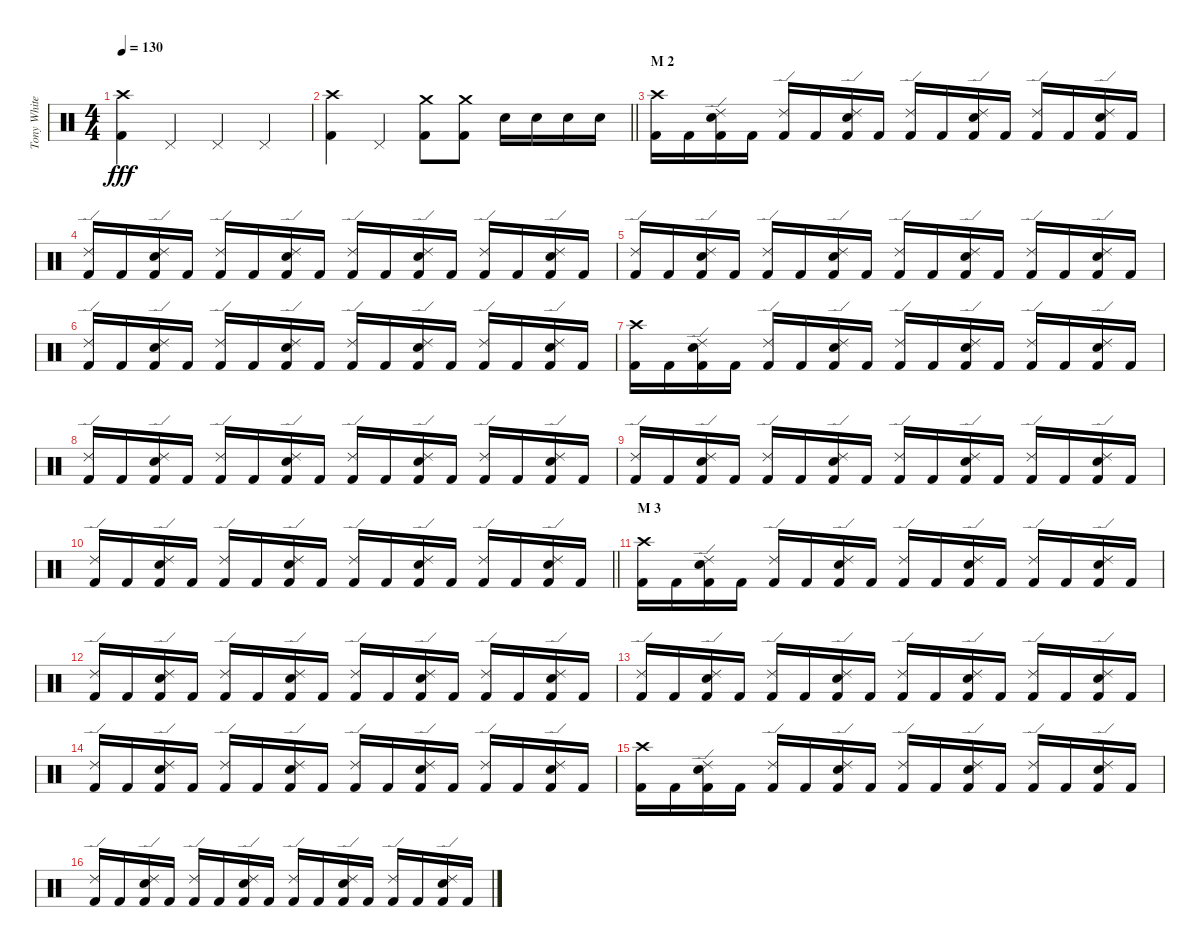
\track ("Tony White" "Tony White") {instrument percussion}
\staff {score}
\articulation defaults
\ts (4 4)
\tempo 130
\clef neutral
\ks c
("Crash high (hit)" "Kick (hit) 2").4{dy fff} "Pedal Hi-Hat (hit)".4 "Pedal Hi-Hat (hit)".4 "Pedal Hi-Hat (hit)".4 |
\barLineRight lightlight
("Crash high (hit)" "Kick (hit) 2").4 "Pedal Hi-Hat (hit)".4 ("Crash medium (hit)" "Kick (hit) 2").8 ("Crash medium (hit)" "Kick (hit) 2").8 "Electric Snare (hit)".16 "Electric Snare (hit)".16 "Electric Snare (hit)".16 "Electric Snare (hit)".16 |
\section ("" "M 2")
("Crash high (hit)" "Kick (hit) 2").16 "Kick (hit) 2".16 ("Ride (edge) 2" "Electric Snare (hit)" "Kick (hit) 2").16 "Kick (hit) 2".16 ("Ride (edge) 2" "Kick (hit) 2").16 "Kick (hit) 2".16 ("Ride (edge) 2" "Electric Snare (hit)" "Kick (hit) 2").16 "Kick (hit) 2".16 ("Ride (edge) 2" "Kick (hit) 2").16 "Kick (hit) 2".16 ("Ride (edge) 2" "Electric Snare (hit)" "Kick (hit) 2").16 "Kick (hit) 2".16 ("Ride (edge) 2" "Kick (hit) 2").16 "Kick (hit) 2".16 ("Ride (edge) 2" "Electric Snare (hit)" "Kick (hit) 2").16 "Kick (hit) 2".16 |
("Ride (edge) 2" "Kick (hit) 2").16 "Kick (hit) 2".16 ("Ride (edge) 2" "Electric Snare (hit)" "Kick (hit) 2").16 "Kick (hit) 2".16 ("Ride (edge) 2" "Kick (hit) 2").16 "Kick (hit) 2".16 ("Ride (edge) 2" "Electric Snare (hit)" "Kick (hit) 2").16 "Kick (hit) 2".16 ("Ride (edge) 2" "Kick (hit) 2").16 "Kick (hit) 2".16 ("Ride (edge) 2" "Electric Snare (hit)" "Kick (hit) 2").16 "Kick (hit) 2".16 ("Ride (edge) 2" "Kick (hit) 2").16 "Kick (hit) 2".16 ("Ride (edge) 2" "Electric Snare (hit)" "Kick (hit) 2").16 "Kick (hit) 2".16 |
("Ride (edge) 2" "Kick (hit) 2").16 "Kick (hit) 2".16 ("Ride (edge) 2" "Electric Snare (hit)" "Kick (hit) 2").16 "Kick (hit) 2".16 ("Ride (edge) 2" "Kick (hit) 2").16 "Kick (hit) 2".16 ("Ride (edge) 2" "Electric Snare (hit)" "Kick (hit) 2").16 "Kick (hit) 2".16 ("Ride (edge) 2" "Kick (hit) 2").16 "Kick (hit) 2".16 ("Ride (edge) 2" "Electric Snare (hit)" "Kick (hit) 2").16 "Kick (hit) 2".16 ("Ride (edge) 2" "Kick (hit) 2").16 "Kick (hit) 2".16 ("Ride (edge) 2" "Electric Snare (hit)" "Kick (hit) 2").16 "Kick (hit) 2".16 |
("Ride (edge) 2" "Kick (hit) 2").16 "Kick (hit) 2".16 ("Ride (edge) 2" "Electric Snare (hit)" "Kick (hit) 2").16 "Kick (hit) 2".16 ("Ride (edge) 2" "Kick (hit) 2").16 "Kick (hit) 2".16 ("Ride (edge) 2" "Electric Snare (hit)" "Kick (hit) 2").16 "Kick (hit) 2".16 ("Ride (edge) 2" "Kick (hit) 2").16 "Kick (hit) 2".16 ("Ride (edge) 2" "Electric Snare (hit)" "Kick (hit) 2").16 "Kick (hit) 2".16 ("Ride (edge) 2" "Kick (hit) 2").16 "Kick (hit) 2".16 ("Ride (edge) 2" "Electric Snare (hit)" "Kick (hit) 2").16 "Kick (hit) 2".16 |
("Crash high (hit)" "Kick (hit) 2").16 "Kick (hit) 2".16 ("Ride (edge) 2" "Electric Snare (hit)" "Kick (hit) 2").16 "Kick (hit) 2".16 ("Ride (edge) 2" "Kick (hit) 2").16 "Kick (hit) 2".16 ("Ride (edge) 2" "Electric Snare (hit)" "Kick (hit) 2").16 "Kick (hit) 2".16 ("Ride (edge) 2" "Kick (hit) 2").16 "Kick (hit) 2".16 ("Ride (edge) 2" "Electric Snare (hit)" "Kick (hit) 2").16 "Kick (hit) 2".16 ("Ride (edge) 2" "Kick (hit) 2").16 "Kick (hit) 2".16 ("Ride (edge) 2" "Electric Snare (hit)" "Kick (hit) 2").16 "Kick (hit) 2".16 |
("Ride (edge) 2" "Kick (hit) 2").16 "Kick (hit) 2".16 ("Ride (edge) 2" "Electric Snare (hit)" "Kick (hit) 2").16 "Kick (hit) 2".16 ("Ride (edge) 2" "Kick (hit) 2").16 "Kick (hit) 2".16 ("Ride (edge) 2" "Electric Snare (hit)" "Kick (hit) 2").16 "Kick (hit) 2".16 ("Ride (edge) 2" "Kick (hit) 2").16 "Kick (hit) 2".16 ("Ride (edge) 2" "Electric Snare (hit)" "Kick (hit) 2").16 "Kick (hit) 2".16 ("Ride (edge) 2" "Kick (hit) 2").16 "Kick (hit) 2".16 ("Ride (edge) 2" "Electric Snare (hit)" "Kick (hit) 2").16 "Kick (hit) 2".16 |
("Ride (edge) 2" "Kick (hit) 2").16 "Kick (hit) 2".16 ("Ride (edge) 2" "Electric Snare (hit)" "Kick (hit) 2").16 "Kick (hit) 2".16 ("Ride (edge) 2" "Kick (hit) 2").16 "Kick (hit) 2".16 ("Ride (edge) 2" "Electric Snare (hit)" "Kick (hit) 2").16 "Kick (hit) 2".16 ("Ride (edge) 2" "Kick (hit) 2").16 "Kick (hit) 2".16 ("Ride (edge) 2" "Electric Snare (hit)" "Kick (hit) 2").16 "Kick (hit) 2".16 ("Ride (edge) 2" "Kick (hit) 2").16 "Kick (hit) 2".16 ("Ride (edge) 2" "Electric Snare (hit)" "Kick (hit) 2").16 "Kick (hit) 2".16 |
\barLineRight lightlight
("Ride (edge) 2" "Kick (hit) 2").16 "Kick (hit) 2".16 ("Ride (edge) 2" "Electric Snare (hit)" "Kick (hit) 2").16 "Kick (hit) 2".16 ("Ride (edge) 2" "Kick (hit) 2").16 "Kick (hit) 2".16 ("Ride (edge) 2" "Electric Snare (hit)" "Kick (hit) 2").16 "Kick (hit) 2".16 ("Ride (edge) 2" "Kick (hit) 2").16 "Kick (hit) 2".16 ("Ride (edge) 2" "Electric Snare (hit)" "Kick (hit) 2").16 "Kick (hit) 2".16 ("Ride (edge) 2" "Kick (hit) 2").16 "Kick (hit) 2".16 ("Ride (edge) 2" "Electric Snare (hit)" "Kick (hit) 2").16 "Kick (hit) 2".16 |
\section ("" "M 3")
("Crash high (hit)" "Kick (hit) 2").16 "Kick (hit) 2".16 ("Ride (edge) 2" "Electric Snare (hit)" "Kick (hit) 2").16 "Kick (hit) 2".16 ("Ride (edge) 2" "Kick (hit) 2").16 "Kick (hit) 2".16 ("Ride (edge) 2" "Electric Snare (hit)" "Kick (hit) 2").16 "Kick (hit) 2".16 ("Ride (edge) 2" "Kick (hit) 2").16 "Kick (hit) 2".16 ("Ride (edge) 2" "Electric Snare (hit)" "Kick (hit) 2").16 "Kick (hit) 2".16 ("Ride (edge) 2" "Kick (hit) 2").16 "Kick (hit) 2".16 ("Ride (edge) 2" "Electric Snare (hit)" "Kick (hit) 2").16 "Kick (hit) 2".16 |
("Ride (edge) 2" "Kick (hit) 2").16 "Kick (hit) 2".16 ("Ride (edge) 2" "Electric Snare (hit)" "Kick (hit) 2").16 "Kick (hit) 2".16 ("Ride (edge) 2" "Kick (hit) 2").16 "Kick (hit) 2".16 ("Ride (edge) 2" "Electric Snare (hit)" "Kick (hit) 2").16 "Kick (hit) 2".16 ("Ride (edge) 2" "Kick (hit) 2").16 "Kick (hit) 2".16 ("Ride (edge) 2" "Electric Snare (hit)" "Kick (hit) 2").16 "Kick (hit) 2".16 ("Ride (edge) 2" "Kick (hit) 2").16 "Kick (hit) 2".16 ("Ride (edge) 2" "Electric Snare (hit)" "Kick (hit) 2").16 "Kick (hit) 2".16 |
("Ride (edge) 2" "Kick (hit) 2").16 "Kick (hit) 2".16 ("Ride (edge) 2" "Electric Snare (hit)" "Kick (hit) 2").16 "Kick (hit) 2".16 ("Ride (edge) 2" "Kick (hit) 2").16 "Kick (hit) 2".16 ("Ride (edge) 2" "Electric Snare (hit)" "Kick (hit) 2").16 "Kick (hit) 2".16 ("Ride (edge) 2" "Kick (hit) 2").16 "Kick (hit) 2".16 ("Ride (edge) 2" "Electric Snare (hit)" "Kick (hit) 2").16 "Kick (hit) 2".16 ("Ride (edge) 2" "Kick (hit) 2").16 "Kick (hit) 2".16 ("Ride (edge) 2" "Electric Snare (hit)" "Kick (hit) 2").16 "Kick (hit) 2".16 |
("Ride (edge) 2" "Kick (hit) 2").16 "Kick (hit) 2".16 ("Ride (edge) 2" "Electric Snare (hit)" "Kick (hit) 2").16 "Kick (hit) 2".16 ("Ride (edge) 2" "Kick (hit) 2").16 "Kick (hit) 2".16 ("Ride (edge) 2" "Electric Snare (hit)" "Kick (hit) 2").16 "Kick (hit) 2".16 ("Ride (edge) 2" "Kick (hit) 2").16 "Kick (hit) 2".16 ("Ride (edge) 2" "Electric Snare (hit)" "Kick (hit) 2").16 "Kick (hit) 2".16 ("Ride (edge) 2" "Kick (hit) 2").16 "Kick (hit) 2".16 ("Ride (edge) 2" "Electric Snare (hit)" "Kick (hit) 2").16 "Kick (hit) 2".16 |
("Crash high (hit)" "Kick (hit) 2").16 "Kick (hit) 2".16 ("Ride (edge) 2" "Electric Snare (hit)" "Kick (hit) 2").16 "Kick (hit) 2".16 ("Ride (edge) 2" "Kick (hit) 2").16 "Kick (hit) 2".16 ("Ride (edge) 2" "Electric Snare (hit)" "Kick (hit) 2").16 "Kick (hit) 2".16 ("Ride (edge) 2" "Kick (hit) 2").16 "Kick (hit) 2".16 ("Ride (edge) 2" "Electric Snare (hit)" "Kick (hit) 2").16 "Kick (hit) 2".16 ("Ride (edge) 2" "Kick (hit) 2").16 "Kick (hit) 2".16 ("Ride (edge) 2" "Electric Snare (hit)" "Kick (hit) 2").16 "Kick (hit) 2".16 |
("Ride (edge) 2" "Kick (hit) 2").16 "Kick (hit) 2".16 ("Ride (edge) 2" "Electric Snare (hit)" "Kick (hit) 2").16 "Kick (hit) 2".16 ("Ride (edge) 2" "Kick (hit) 2").16 "Kick (hit) 2".16 ("Ride (edge) 2" "Electric Snare (hit)" "Kick (hit) 2").16 "Kick (hit) 2".16 ("Ride (edge) 2" "Kick (hit) 2").16 "Kick (hit) 2".16 ("Ride (edge) 2" "Electric Snare (hit)" "Kick (hit) 2").16 "Kick (hit) 2".16 ("Ride (edge) 2" "Kick (hit) 2").16 "Kick (hit) 2".16 ("Ride (edge) 2" "Electric Snare (hit)" "Kick (hit) 2").16 "Kick (hit) 2".16
